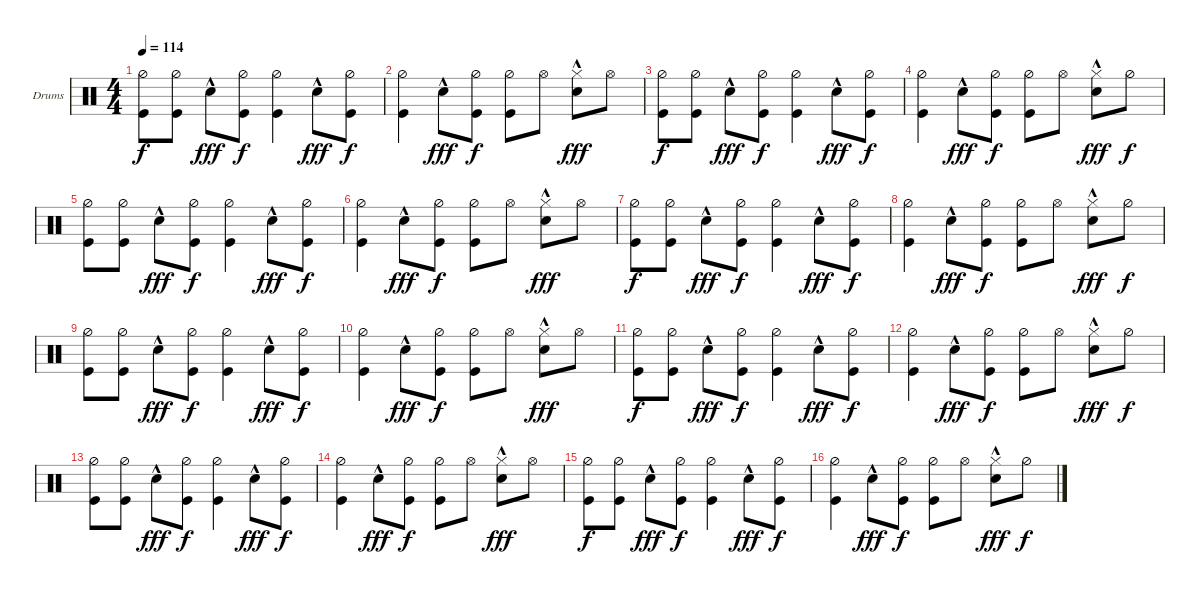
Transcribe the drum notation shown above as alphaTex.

\defaultSystemsLayout 4
\bracketExtendMode groupsimilarinstruments
\firstSystemTrackNameOrientation horizontal
\otherSystemsTrackNameOrientation horizontal
\track ("Drumkit" "Drums") {instrument percussion}
\staff {score}
\articulation defaults
\ts (4 4)
\tempo 114
\clef neutral
\ks c
("Hi-Hat (half)" "Kick (hit)").8{dy f} ("Hi-Hat (half)" "Kick (hit)").8 "Snare (hit) 2"{hac}.8{dy fff} ("Kick (hit)" "Hi-Hat (half)").8{dy f} ("Kick (hit)" "Hi-Hat (half)").4 "Snare (hit) 2"{hac}.8{dy fff} ("Kick (hit)" "Hi-Hat (half)").8{dy f} |
("Kick (hit)" "Hi-Hat (half)").4 "Snare (hit) 2"{hac}.8{dy fff} ("Kick (hit)" "Hi-Hat (half)").8{dy f} ("Kick (hit)" "Hi-Hat (half)").8 "Hi-Hat (open)".8 ("Snare (hit) 2"{hac} "Hi-Hat (closed)").8{dy fff} "Hi-Hat (open)".8 |
("Hi-Hat (half)" "Kick (hit)").8{dy f} ("Hi-Hat (half)" "Kick (hit)").8 "Snare (hit) 2"{hac}.8{dy fff} ("Kick (hit)" "Hi-Hat (half)").8{dy f} ("Kick (hit)" "Hi-Hat (half)").4 "Snare (hit) 2"{hac}.8{dy fff} ("Kick (hit)" "Hi-Hat (half)").8{dy f} |
("Kick (hit)" "Hi-Hat (half)").4 "Snare (hit) 2"{hac}.8{dy fff} ("Kick (hit)" "Hi-Hat (half)").8{dy f} ("Kick (hit)" "Hi-Hat (half)").8 "Hi-Hat (open)".8 ("Hi-Hat (closed)" "Snare (hit) 2"{hac}).8{dy fff} "Hi-Hat (half)".8{dy f} |
("Hi-Hat (half)" "Kick (hit)").8 ("Hi-Hat (half)" "Kick (hit)").8 "Snare (hit) 2"{hac}.8{dy fff} ("Kick (hit)" "Hi-Hat (half)").8{dy f} ("Kick (hit)" "Hi-Hat (half)").4 "Snare (hit) 2"{hac}.8{dy fff} ("Kick (hit)" "Hi-Hat (half)").8{dy f} |
("Kick (hit)" "Hi-Hat (half)").4 "Snare (hit) 2"{hac}.8{dy fff} ("Kick (hit)" "Hi-Hat (half)").8{dy f} ("Kick (hit)" "Hi-Hat (half)").8 "Hi-Hat (open)".8 ("Snare (hit) 2"{hac} "Hi-Hat (closed)").8{dy fff} "Hi-Hat (open)".8 |
("Hi-Hat (half)" "Kick (hit)").8{dy f} ("Hi-Hat (half)" "Kick (hit)").8 "Snare (hit) 2"{hac}.8{dy fff} ("Kick (hit)" "Hi-Hat (half)").8{dy f} ("Kick (hit)" "Hi-Hat (half)").4 "Snare (hit) 2"{hac}.8{dy fff} ("Kick (hit)" "Hi-Hat (half)").8{dy f} |
("Kick (hit)" "Hi-Hat (half)").4 "Snare (hit) 2"{hac}.8{dy fff} ("Kick (hit)" "Hi-Hat (half)").8{dy f} ("Kick (hit)" "Hi-Hat (half)").8 "Hi-Hat (open)".8 ("Hi-Hat (closed)" "Snare (hit) 2"{hac}).8{dy fff} "Hi-Hat (half)".8{dy f} |
("Hi-Hat (half)" "Kick (hit)").8 ("Hi-Hat (half)" "Kick (hit)").8 "Snare (hit) 2"{hac}.8{dy fff} ("Kick (hit)" "Hi-Hat (half)").8{dy f} ("Kick (hit)" "Hi-Hat (half)").4 "Snare (hit) 2"{hac}.8{dy fff} ("Kick (hit)" "Hi-Hat (half)").8{dy f} |
("Kick (hit)" "Hi-Hat (half)").4 "Snare (hit) 2"{hac}.8{dy fff} ("Kick (hit)" "Hi-Hat (half)").8{dy f} ("Kick (hit)" "Hi-Hat (half)").8 "Hi-Hat (open)".8 ("Snare (hit) 2"{hac} "Hi-Hat (closed)").8{dy fff} "Hi-Hat (open)".8 |
("Hi-Hat (half)" "Kick (hit)").8{dy f} ("Hi-Hat (half)" "Kick (hit)").8 "Snare (hit) 2"{hac}.8{dy fff} ("Kick (hit)" "Hi-Hat (half)").8{dy f} ("Kick (hit)" "Hi-Hat (half)").4 "Snare (hit) 2"{hac}.8{dy fff} ("Kick (hit)" "Hi-Hat (half)").8{dy f} |
("Kick (hit)" "Hi-Hat (half)").4 "Snare (hit) 2"{hac}.8{dy fff} ("Kick (hit)" "Hi-Hat (half)").8{dy f} ("Kick (hit)" "Hi-Hat (half)").8 "Hi-Hat (open)".8 ("Hi-Hat (closed)" "Snare (hit) 2"{hac}).8{dy fff} "Hi-Hat (half)".8{dy f} |
("Hi-Hat (half)" "Kick (hit)").8 ("Hi-Hat (half)" "Kick (hit)").8 "Snare (hit) 2"{hac}.8{dy fff} ("Kick (hit)" "Hi-Hat (half)").8{dy f} ("Kick (hit)" "Hi-Hat (half)").4 "Snare (hit) 2"{hac}.8{dy fff} ("Kick (hit)" "Hi-Hat (half)").8{dy f} |
("Kick (hit)" "Hi-Hat (half)").4 "Snare (hit) 2"{hac}.8{dy fff} ("Kick (hit)" "Hi-Hat (half)").8{dy f} ("Kick (hit)" "Hi-Hat (half)").8 "Hi-Hat (open)".8 ("Snare (hit) 2"{hac} "Hi-Hat (closed)").8{dy fff} "Hi-Hat (open)".8 |
("Hi-Hat (half)" "Kick (hit)").8{dy f} ("Hi-Hat (half)" "Kick (hit)").8 "Snare (hit) 2"{hac}.8{dy fff} ("Kick (hit)" "Hi-Hat (half)").8{dy f} ("Kick (hit)" "Hi-Hat (half)").4 "Snare (hit) 2"{hac}.8{dy fff} ("Kick (hit)" "Hi-Hat (half)").8{dy f} |
("Kick (hit)" "Hi-Hat (half)").4 "Snare (hit) 2"{hac}.8{dy fff} ("Kick (hit)" "Hi-Hat (half)").8{dy f} ("Kick (hit)" "Hi-Hat (half)").8 "Hi-Hat (open)".8 ("Hi-Hat (closed)" "Snare (hit) 2"{hac}).8{dy fff} "Hi-Hat (half)".8{dy f}
